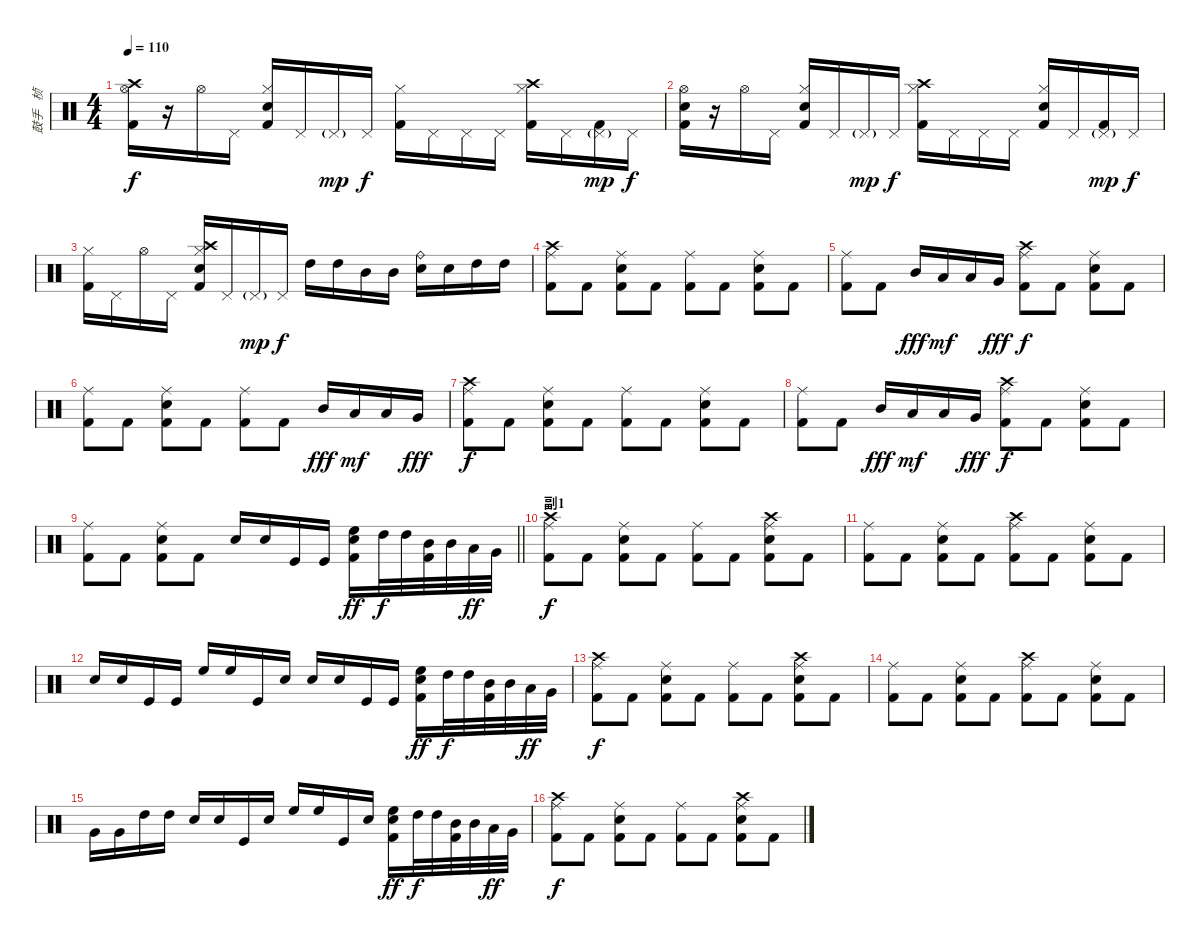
\track ("鼓手   桢" "鼓手   桢") {instrument percussion bank 1}
\staff {score}
\articulation defaults
\ts (4 4)
\tempo 110
\clef neutral
\ks c
("Hi-Hat (open)" "Kick (hit) 2" "Crash high (hit)").16{dy f} r.16 "Hi-Hat (open)".16 "Pedal Hi-Hat (hit)".16 ("Hi-Hat (closed)" "Snare (hit) 2" "Kick (hit) 2").16 "Pedal Hi-Hat (hit)".16 "Pedal Hi-Hat (hit)"{g}.16{dy mp} "Pedal Hi-Hat (hit)".16{dy f} ("Hi-Hat (closed)" "Kick (hit) 2").16 "Pedal Hi-Hat (hit)".16 "Pedal Hi-Hat (hit)".16 "Pedal Hi-Hat (hit)".16 ("Hi-Hat (closed)" "Kick (hit) 2" "Crash high (hit)").16 "Pedal Hi-Hat (hit)".16 ("Pedal Hi-Hat (hit)"{g} "Kick (hit) 2").16{dy mp} "Pedal Hi-Hat (hit)".16{dy f} |
("Hi-Hat (open)" "Snare (hit) 2" "Kick (hit) 2").16 r.16 "Hi-Hat (open)".16 "Pedal Hi-Hat (hit)".16 ("Hi-Hat (closed)" "Snare (hit) 2" "Kick (hit) 2").16 "Pedal Hi-Hat (hit)".16 "Pedal Hi-Hat (hit)"{g}.16{dy mp} "Pedal Hi-Hat (hit)".16{dy f} ("Hi-Hat (closed)" "Kick (hit) 2" "Crash high (hit)").16 "Pedal Hi-Hat (hit)".16 "Pedal Hi-Hat (hit)".16 "Pedal Hi-Hat (hit)".16 ("Hi-Hat (closed)" "Snare (hit) 2" "Kick (hit) 2").16 "Pedal Hi-Hat (hit)".16 ("Pedal Hi-Hat (hit)"{g} "Kick (hit) 2").16{dy mp} "Pedal Hi-Hat (hit)".16{dy f} |
("Hi-Hat (closed)" "Kick (hit) 2").16 "Pedal Hi-Hat (hit)".16 "Hi-Hat (open)".16 "Pedal Hi-Hat (hit)".16 ("Hi-Hat (closed)" "Snare (hit) 2" "Kick (hit) 2" "Crash high (hit)").16 "Pedal Hi-Hat (hit)".16 "Pedal Hi-Hat (hit)"{g}.16{dy mp} "Pedal Hi-Hat (hit)".16{dy f} "High Tom (hit)".16 "High Tom (hit)".16 "Mid Tom (hit)".16 "Mid Tom (hit)".16 ("Ride (bell)" "Snare (hit) 2").16 "Snare (hit) 2".16 "High Tom (hit)".16 "High Tom (hit)".16 |
("Ride (middle)" "Kick (hit) 2" "Crash high (hit)").8 "Kick (hit) 2".8 ("Ride (middle)" "Snare (hit) 2" "Kick (hit) 2").8 "Kick (hit) 2".8 ("Ride (middle)" "Kick (hit) 2").8 "Kick (hit) 2".8 ("Ride (middle)" "Snare (hit) 2" "Kick (hit) 2").8 "Kick (hit) 2".8 |
("Ride (middle)" "Kick (hit) 2").8 "Kick (hit) 2".8 "Mid Tom (hit)".16{dy fff} "Low Tom (hit)".16{dy mf} "Low Tom (hit)".16 "Very Low Tom (hit)".16{dy fff} ("Ride (middle)" "Kick (hit) 2" "Crash high (hit)").8{dy f} "Kick (hit) 2".8 ("Ride (middle)" "Snare (hit) 2" "Kick (hit) 2").8 "Kick (hit) 2".8 |
("Ride (middle)" "Kick (hit) 2").8 "Kick (hit) 2".8 ("Ride (middle)" "Snare (hit) 2" "Kick (hit) 2").8 "Kick (hit) 2".8 ("Ride (middle)" "Kick (hit) 2").8 "Kick (hit) 2".8 "Mid Tom (hit)".16{dy fff} "Low Tom (hit)".16{dy mf} "Low Tom (hit)".16 "Very Low Tom (hit)".16{dy fff} |
("Ride (middle)" "Kick (hit) 2" "Crash high (hit)").8{dy f} "Kick (hit) 2".8 ("Ride (middle)" "Snare (hit) 2" "Kick (hit) 2").8 "Kick (hit) 2".8 ("Ride (middle)" "Kick (hit) 2").8 "Kick (hit) 2".8 ("Ride (middle)" "Snare (hit) 2" "Kick (hit) 2").8 "Kick (hit) 2".8 |
("Ride (middle)" "Kick (hit) 2").8 "Kick (hit) 2".8 "Mid Tom (hit)".16{dy fff} "Low Tom (hit)".16{dy mf} "Low Tom (hit)".16 "Very Low Tom (hit)".16{dy fff} ("Ride (middle)" "Kick (hit) 2" "Crash high (hit)").8{dy f} "Kick (hit) 2".8 ("Ride (middle)" "Snare (hit) 2" "Kick (hit) 2").8 "Kick (hit) 2".8 |
\barLineRight lightlight
("Ride (middle)" "Kick (hit) 2").8 "Kick (hit) 2".8 ("Ride (middle)" "Snare (hit) 2" "Kick (hit) 2").8 "Kick (hit) 2".8 "Snare (hit) 2".16 "Snare (hit) 2".16 "Kick (hit)".16 "Kick (hit)".16 ("Electric Snare (hit)" "High Floor Tom (hit)" "Kick (hit) 2").16{dy ff} "High Tom (hit)".32{dy f} "High Tom (hit)".32 ("Mid Tom (hit)" "Kick (hit) 2").32 "Mid Tom (hit)".32 "Low Tom (hit)".32{dy ff} "Very Low Tom (hit)".32 |
\section ("" "副1")
("Ride (middle)" "Kick (hit) 2" "Crash high (hit)").8{dy f} "Kick (hit) 2".8 ("Ride (middle)" "Snare (hit) 2" "Kick (hit) 2").8 "Kick (hit) 2".8 ("Ride (middle)" "Kick (hit) 2").8 "Kick (hit) 2".8 ("Ride (middle)" "Snare (hit) 2" "Kick (hit) 2" "Crash high (hit)").8 "Kick (hit) 2".8 |
("Ride (middle)" "Kick (hit) 2").8 "Kick (hit) 2".8 ("Ride (middle)" "Snare (hit) 2" "Kick (hit) 2").8 "Kick (hit) 2".8 ("Ride (middle)" "Kick (hit) 2" "Crash high (hit)").8 "Kick (hit) 2".8 ("Ride (middle)" "Snare (hit) 2" "Kick (hit) 2").8 "Kick (hit) 2".8 |
"Snare (hit) 2".16 "Snare (hit) 2".16 "Kick (hit)".16 "Kick (hit)".16 "High Floor Tom (hit)".16 "High Floor Tom (hit)".16 "Kick (hit)".16 "Snare (hit) 2".16 "Snare (hit) 2".16 "Snare (hit) 2".16 "Kick (hit)".16 "Kick (hit)".16 ("Electric Snare (hit)" "High Floor Tom (hit)" "Kick (hit) 2").16{dy ff} "High Tom (hit)".32{dy f} "High Tom (hit)".32 ("Mid Tom (hit)" "Kick (hit) 2").32 "Mid Tom (hit)".32 "Low Tom (hit)".32{dy ff} "Very Low Tom (hit)".32 |
("Ride (middle)" "Kick (hit) 2" "Crash high (hit)").8{dy f} "Kick (hit) 2".8 ("Ride (middle)" "Snare (hit) 2" "Kick (hit) 2").8 "Kick (hit) 2".8 ("Ride (middle)" "Kick (hit) 2").8 "Kick (hit) 2".8 ("Ride (middle)" "Snare (hit) 2" "Kick (hit) 2" "Crash high (hit)").8 "Kick (hit) 2".8 |
("Ride (middle)" "Kick (hit) 2").8 "Kick (hit) 2".8 ("Ride (middle)" "Snare (hit) 2" "Kick (hit) 2").8 "Kick (hit) 2".8 ("Ride (middle)" "Kick (hit) 2" "Crash high (hit)").8 "Kick (hit) 2".8 ("Ride (middle)" "Snare (hit) 2" "Kick (hit) 2").8 "Kick (hit) 2".8 |
"Very Low Tom (hit)".16 "Very Low Tom (hit)".16 "High Tom (hit)".16 "High Tom (hit)".16 "Snare (hit) 2".16 "Snare (hit) 2".16 "Kick (hit)".16 "Snare (hit) 2".16 "High Floor Tom (hit)".16 "High Floor Tom (hit)".16 "Kick (hit)".16 "Snare (hit) 2".16 ("Electric Snare (hit)" "High Floor Tom (hit)" "Kick (hit) 2").16{dy ff} "High Tom (hit)".32{dy f} "High Tom (hit)".32 ("Mid Tom (hit)" "Kick (hit) 2").32 "Mid Tom (hit)".32 "Low Tom (hit)".32{dy ff} "Very Low Tom (hit)".32 |
("Ride (middle)" "Kick (hit) 2" "Crash high (hit)").8{dy f} "Kick (hit) 2".8 ("Ride (middle)" "Snare (hit) 2" "Kick (hit) 2").8 "Kick (hit) 2".8 ("Ride (middle)" "Kick (hit) 2").8 "Kick (hit) 2".8 ("Ride (middle)" "Snare (hit) 2" "Kick (hit) 2" "Crash high (hit)").8 "Kick (hit) 2".8
